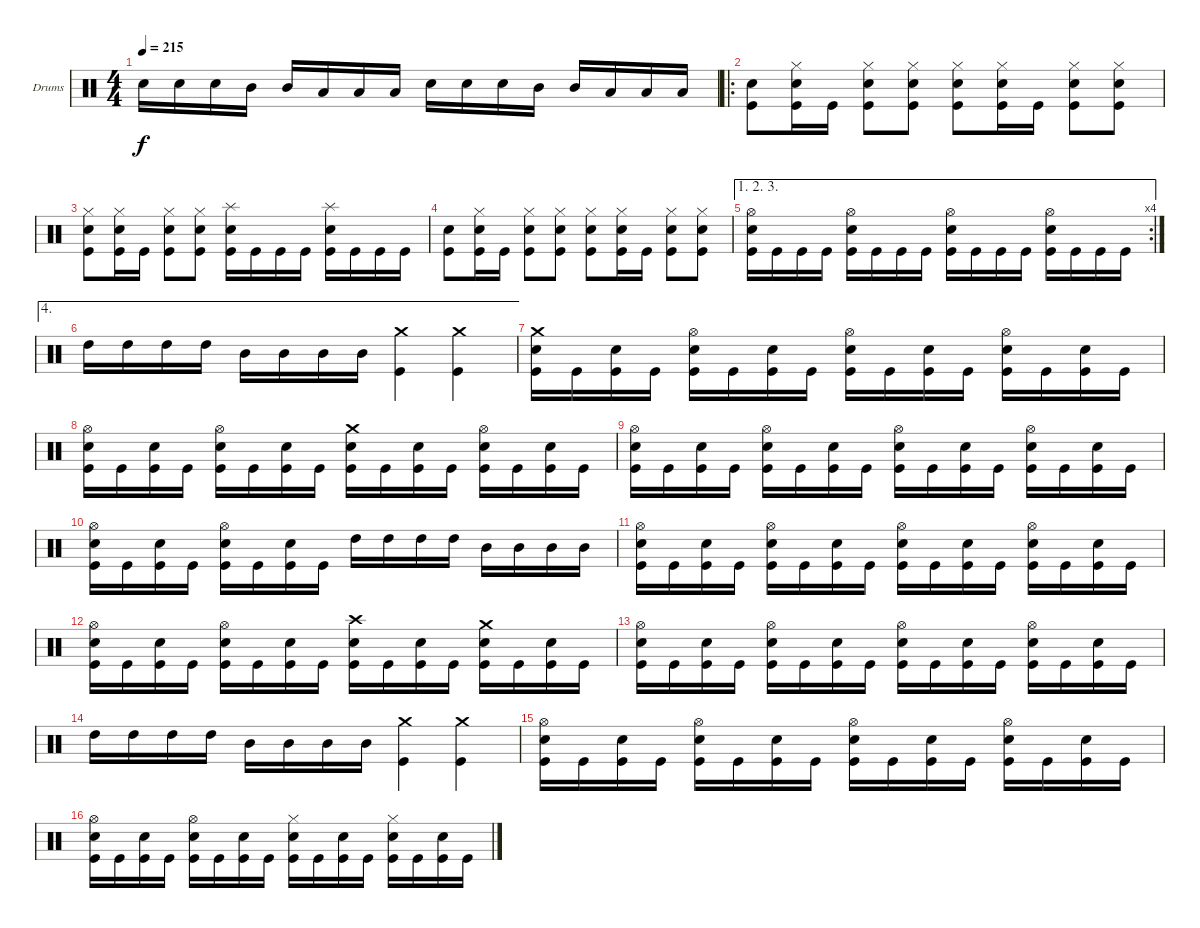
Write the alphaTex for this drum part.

\defaultSystemsLayout 4
\bracketExtendMode groupsimilarinstruments
\firstSystemTrackNameOrientation horizontal
\otherSystemsTrackNameOrientation horizontal
\track ("Trey Williams" "Drums") {instrument percussion}
\staff {score}
\articulation defaults
\ts (4 4)
\tempo 215
\clef neutral
\ks c "Snare (hit) 2".16{dy f} "Snare (hit) 2".16 "Snare (hit) 2".16 "Mid Tom (hit)".16 "Mid Tom (hit)".16 "Low Tom (hit)".16 "Low Tom (hit)".16 "Low Tom (hit)".16 "Snare (hit) 2".16 "Snare (hit) 2".16 "Snare (hit) 2".16 "Mid Tom (hit)".16 "Mid Tom (hit)".16 "Low Tom (hit)".16 "Low Tom (hit)".16 "Low Tom (hit)".16
|
\ro
("Kick (hit)" "Snare (hit) 2").8 ("Kick (hit)" "Snare (hit) 2" "Hi-Hat (closed)").16 "Kick (hit)".16 ("Kick (hit)" "Snare (hit) 2" "Hi-Hat (closed)").8 ("Kick (hit)" "Snare (hit) 2" "Hi-Hat (closed)").8 ("Kick (hit)" "Snare (hit) 2" "Hi-Hat (closed)").8 ("Kick (hit)" "Snare (hit) 2" "Hi-Hat (closed)").16 "Kick (hit)".16 ("Kick (hit)" "Snare (hit) 2" "Hi-Hat (closed)").8 ("Kick (hit)" "Snare (hit) 2" "Hi-Hat (closed)").8 |
("Kick (hit)" "Snare (hit) 2" "Hi-Hat (closed)").8 ("Kick (hit)" "Snare (hit) 2" "Hi-Hat (closed)").16 "Kick (hit)".16 ("Kick (hit)" "Snare (hit) 2" "Hi-Hat (closed)").8 ("Kick (hit)" "Snare (hit) 2" "Hi-Hat (closed)").8 ("Kick (hit)" "Snare (hit) 2" "Splash (hit)").16 "Kick (hit)".16 "Kick (hit)".16 "Kick (hit)".16 ("Kick (hit)" "Snare (hit) 2" "Splash (hit)").16 "Kick (hit)".16 "Kick (hit)".16 "Kick (hit)".16 |
("Kick (hit)" "Snare (hit) 2").8 ("Kick (hit)" "Snare (hit) 2" "Hi-Hat (closed)").16 "Kick (hit)".16 ("Kick (hit)" "Snare (hit) 2" "Hi-Hat (closed)").8 ("Kick (hit)" "Snare (hit) 2" "Hi-Hat (closed)").8 ("Kick (hit)" "Snare (hit) 2" "Hi-Hat (closed)").8 ("Kick (hit)" "Snare (hit) 2" "Hi-Hat (closed)").16 "Kick (hit)".16 ("Kick (hit)" "Snare (hit) 2" "Hi-Hat (closed)").8 ("Kick (hit)" "Snare (hit) 2" "Hi-Hat (closed)").8 |
\ae (1 2 3)
\rc 4
("Kick (hit)" "Snare (hit) 2" "Hi-Hat (open)").16 "Kick (hit)".16 "Kick (hit)".16 "Kick (hit)".16 ("Kick (hit)" "Snare (hit) 2" "Hi-Hat (open)").16 "Kick (hit)".16 "Kick (hit)".16 "Kick (hit)".16 ("Kick (hit)" "Snare (hit) 2" "Hi-Hat (open)").16 "Kick (hit)".16 "Kick (hit)".16 "Kick (hit)".16 ("Kick (hit)" "Snare (hit) 2" "Hi-Hat (open)").16 "Kick (hit)".16 "Kick (hit)".16 "Kick (hit)".16 |
\ae 4 "High Tom (hit)".16 "High Tom (hit)".16 "High Tom (hit)".16 "High Tom (hit)".16 "Mid Tom (hit)".16 "Mid Tom (hit)".16 "Mid Tom (hit)".16 "Mid Tom (hit)".16
("Kick (hit)" "Crash medium (hit)").4 ("Kick (hit)" "Crash medium (hit)").4 |
("Kick (hit)" "Snare (hit) 2" "Crash medium (hit)").16 "Kick (hit)".16 ("Kick (hit)" "Snare (hit) 2").16 "Kick (hit)".16 ("Kick (hit)" "Snare (hit) 2" "Hi-Hat (open)").16 "Kick (hit)".16 ("Kick (hit)" "Snare (hit) 2").16 "Kick (hit)".16 ("Kick (hit)" "Snare (hit) 2" "Hi-Hat (open)").16 "Kick (hit)".16 ("Kick (hit)" "Snare (hit) 2").16 "Kick (hit)".16 ("Kick (hit)" "Snare (hit) 2" "Hi-Hat (open)").16 "Kick (hit)".16 ("Kick (hit)" "Snare (hit) 2").16 "Kick (hit)".16 |
("Kick (hit)" "Snare (hit) 2" "Hi-Hat (open)").16 "Kick (hit)".16 ("Kick (hit)" "Snare (hit) 2").16 "Kick (hit)".16 ("Kick (hit)" "Snare (hit) 2" "Hi-Hat (open)").16 "Kick (hit)".16 ("Kick (hit)" "Snare (hit) 2").16 "Kick (hit)".16 ("Kick (hit)" "Snare (hit) 2" "Crash medium (hit)").16 "Kick (hit)".16 ("Kick (hit)" "Snare (hit) 2").16 "Kick (hit)".16 ("Kick (hit)" "Snare (hit) 2" "Hi-Hat (open)").16 "Kick (hit)".16 ("Kick (hit)" "Snare (hit) 2").16 "Kick (hit)".16 |
("Kick (hit)" "Snare (hit) 2" "Hi-Hat (open)").16 "Kick (hit)".16 ("Kick (hit)" "Snare (hit) 2").16 "Kick (hit)".16 ("Kick (hit)" "Snare (hit) 2" "Hi-Hat (open)").16 "Kick (hit)".16 ("Kick (hit)" "Snare (hit) 2").16 "Kick (hit)".16 ("Kick (hit)" "Snare (hit) 2" "Hi-Hat (open)").16 "Kick (hit)".16 ("Kick (hit)" "Snare (hit) 2").16 "Kick (hit)".16 ("Kick (hit)" "Snare (hit) 2" "Hi-Hat (open)").16 "Kick (hit)".16 ("Kick (hit)" "Snare (hit) 2").16 "Kick (hit)".16 |
("Kick (hit)" "Snare (hit) 2" "Hi-Hat (open)").16 "Kick (hit)".16 ("Kick (hit)" "Snare (hit) 2").16 "Kick (hit)".16 ("Kick (hit)" "Snare (hit) 2" "Hi-Hat (open)").16 "Kick (hit)".16 ("Kick (hit)" "Snare (hit) 2").16 "Kick (hit)".16 "High Tom (hit)".16 "High Tom (hit)".16 "High Tom (hit)".16 "High Tom (hit)".16 "Mid Tom (hit)".16 "Mid Tom (hit)".16 "Mid Tom (hit)".16 "Mid Tom (hit)".16 |
("Kick (hit)" "Snare (hit) 2" "Hi-Hat (open)").16 "Kick (hit)".16 ("Kick (hit)" "Snare (hit) 2").16 "Kick (hit)".16 ("Kick (hit)" "Snare (hit) 2" "Hi-Hat (open)").16 "Kick (hit)".16 ("Kick (hit)" "Snare (hit) 2").16 "Kick (hit)".16 ("Kick (hit)" "Snare (hit) 2" "Hi-Hat (open)").16 "Kick (hit)".16 ("Kick (hit)" "Snare (hit) 2").16 "Kick (hit)".16 ("Kick (hit)" "Snare (hit) 2" "Hi-Hat (open)").16 "Kick (hit)".16 ("Kick (hit)" "Snare (hit) 2").16 "Kick (hit)".16 |
("Kick (hit)" "Snare (hit) 2" "Hi-Hat (open)").16 "Kick (hit)".16 ("Kick (hit)" "Snare (hit) 2").16 "Kick (hit)".16 ("Kick (hit)" "Snare (hit) 2" "Hi-Hat (open)").16 "Kick (hit)".16 ("Kick (hit)" "Snare (hit) 2").16 "Kick (hit)".16 ("Kick (hit)" "Snare (hit) 2" "Crash high (hit)").16 "Kick (hit)".16 ("Kick (hit)" "Snare (hit) 2").16 "Kick (hit)".16 ("Kick (hit)" "Snare (hit) 2" "Crash medium (hit)").16 "Kick (hit)".16 ("Kick (hit)" "Snare (hit) 2").16 "Kick (hit)".16 |
("Kick (hit)" "Snare (hit) 2" "Hi-Hat (open)").16 "Kick (hit)".16 ("Kick (hit)" "Snare (hit) 2").16 "Kick (hit)".16 ("Kick (hit)" "Snare (hit) 2" "Hi-Hat (open)").16 "Kick (hit)".16 ("Kick (hit)" "Snare (hit) 2").16 "Kick (hit)".16 ("Kick (hit)" "Snare (hit) 2" "Hi-Hat (open)").16 "Kick (hit)".16 ("Kick (hit)" "Snare (hit) 2").16 "Kick (hit)".16 ("Kick (hit)" "Snare (hit) 2" "Hi-Hat (open)").16 "Kick (hit)".16 ("Kick (hit)" "Snare (hit) 2").16 "Kick (hit)".16 |
"High Tom (hit)".16 "High Tom (hit)".16 "High Tom (hit)".16 "High Tom (hit)".16 "Mid Tom (hit)".16 "Mid Tom (hit)".16 "Mid Tom (hit)".16 "Mid Tom (hit)".16 ("Kick (hit)" "Crash medium (hit)").4 ("Kick (hit)" "Crash medium (hit)").4 |
("Kick (hit)" "Snare (hit) 2" "Hi-Hat (open)").16 "Kick (hit)".16 ("Kick (hit)" "Snare (hit) 2").16 "Kick (hit)".16 ("Kick (hit)" "Snare (hit) 2" "Hi-Hat (open)").16 "Kick (hit)".16 ("Kick (hit)" "Snare (hit) 2").16 "Kick (hit)".16 ("Kick (hit)" "Snare (hit) 2" "Hi-Hat (open)").16 "Kick (hit)".16 ("Kick (hit)" "Snare (hit) 2").16 "Kick (hit)".16 ("Kick (hit)" "Snare (hit) 2" "Hi-Hat (open)").16 "Kick (hit)".16 ("Kick (hit)" "Snare (hit) 2").16 "Kick (hit)".16 |
("Kick (hit)" "Snare (hit) 2" "Hi-Hat (open)").16 "Kick (hit)".16 ("Kick (hit)" "Snare (hit) 2").16 "Kick (hit)".16 ("Kick (hit)" "Snare (hit) 2" "Hi-Hat (open)").16 "Kick (hit)".16 ("Kick (hit)" "Snare (hit) 2").16 "Kick (hit)".16 ("Kick (hit)" "Snare (hit) 2" "Hi-Hat (closed)").16 "Kick (hit)".16 ("Kick (hit)" "Snare (hit) 2").16 "Kick (hit)".16 ("Kick (hit)" "Snare (hit) 2" "Hi-Hat (closed)").16 "Kick (hit)".16 ("Kick (hit)" "Snare (hit) 2").16 "Kick (hit)".16
